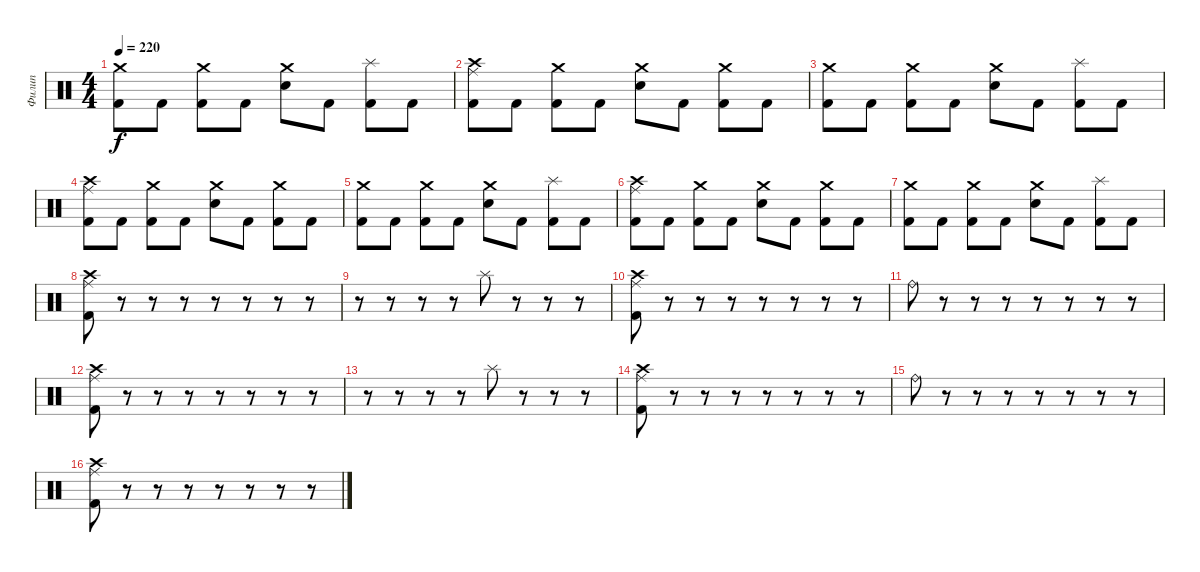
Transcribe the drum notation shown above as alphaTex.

\track ("Филип" "Филип") {instrument percussion}
\staff {score}
\articulation defaults
\ts (4 4)
\tempo 220
\clef neutral
\ks c
("Crash medium (hit)" "Kick (hit) 2").8{dy f} "Kick (hit) 2".8 ("Crash medium (hit)" "Kick (hit) 2").8 "Kick (hit) 2".8 ("Crash medium (hit)" "Electric Snare (hit)").8 "Kick (hit) 2".8 ("Splash (hit)" "Kick (hit) 2").8 "Kick (hit) 2".8 |
("Crash high (hit)" "Ride (middle)" "Kick (hit) 2").8 "Kick (hit) 2".8 ("Crash medium (hit)" "Kick (hit) 2").8 "Kick (hit) 2".8 ("Crash medium (hit)" "Electric Snare (hit)").8 "Kick (hit) 2".8 ("Crash medium (hit)" "Kick (hit) 2").8 "Kick (hit) 2".8 |
("Crash medium (hit)" "Kick (hit) 2").8 "Kick (hit) 2".8 ("Crash medium (hit)" "Kick (hit) 2").8 "Kick (hit) 2".8 ("Crash medium (hit)" "Electric Snare (hit)").8 "Kick (hit) 2".8 ("Splash (hit)" "Kick (hit) 2").8 "Kick (hit) 2".8 |
("Crash high (hit)" "Ride (middle)" "Kick (hit) 2").8 "Kick (hit) 2".8 ("Crash medium (hit)" "Kick (hit) 2").8 "Kick (hit) 2".8 ("Crash medium (hit)" "Electric Snare (hit)").8 "Kick (hit) 2".8 ("Crash medium (hit)" "Kick (hit) 2").8 "Kick (hit) 2".8 |
("Crash medium (hit)" "Kick (hit) 2").8 "Kick (hit) 2".8 ("Crash medium (hit)" "Kick (hit) 2").8 "Kick (hit) 2".8 ("Crash medium (hit)" "Electric Snare (hit)").8 "Kick (hit) 2".8 ("Splash (hit)" "Kick (hit) 2").8 "Kick (hit) 2".8 |
("Crash high (hit)" "Ride (middle)" "Kick (hit) 2").8 "Kick (hit) 2".8 ("Crash medium (hit)" "Kick (hit) 2").8 "Kick (hit) 2".8 ("Crash medium (hit)" "Electric Snare (hit)").8 "Kick (hit) 2".8 ("Crash medium (hit)" "Kick (hit) 2").8 "Kick (hit) 2".8 |
("Crash medium (hit)" "Kick (hit) 2").8 "Kick (hit) 2".8 ("Crash medium (hit)" "Kick (hit) 2").8 "Kick (hit) 2".8 ("Crash medium (hit)" "Electric Snare (hit)").8 "Kick (hit) 2".8 ("Splash (hit)" "Kick (hit) 2").8 "Kick (hit) 2".8 |
("Crash high (hit)" "Ride (middle)" "Kick (hit) 2").8 r.8 r.8 r.8 r.8 r.8 r.8 r.8 |
r.8 r.8 r.8 r.8 "Splash (hit)".8 r.8 r.8 r.8 |
("Crash high (hit)" "Ride (middle)" "Kick (hit) 2").8 r.8 r.8 r.8 r.8 r.8 r.8 r.8 |
"Ride (bell)".8 r.8 r.8 r.8 r.8 r.8 r.8 r.8 |
("Crash high (hit)" "Ride (middle)" "Kick (hit) 2").8 r.8 r.8 r.8 r.8 r.8 r.8 r.8 |
r.8 r.8 r.8 r.8 "Splash (hit)".8 r.8 r.8 r.8 |
("Crash high (hit)" "Ride (middle)" "Kick (hit) 2").8 r.8 r.8 r.8 r.8 r.8 r.8 r.8 |
"Ride (bell)".8 r.8 r.8 r.8 r.8 r.8 r.8 r.8 |
("Crash high (hit)" "Ride (middle)" "Kick (hit) 2").8 r.8 r.8 r.8 r.8 r.8 r.8 r.8
